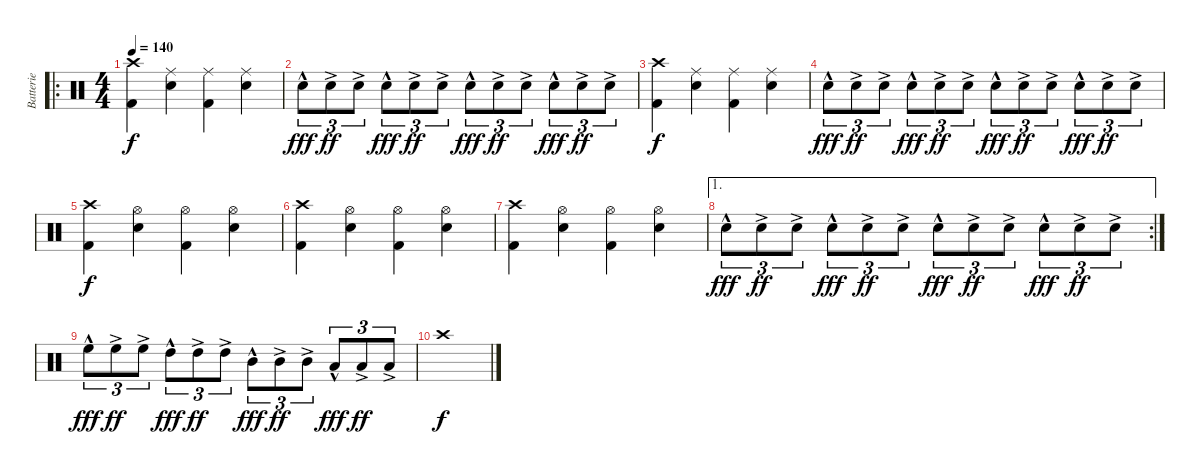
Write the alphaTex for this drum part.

\track ("Batterie" "Batterie") {instrument percussion}
\staff {score}
\articulation defaults
\ro
\ts (4 4)
\tempo 140
\clef neutral
\ks c
("Crash high (hit)" "Kick (hit) 2").4{dy f} ("Ride (middle)" "Electric Snare (hit)").4 ("Ride (middle)" "Kick (hit) 2").4 ("Ride (middle)" "Electric Snare (hit)").4 |
"Electric Snare (hit)"{hac}.8{tu (3 2) dy fff} "Electric Snare (hit)"{ac}.8{tu (3 2) dy ff} "Electric Snare (hit)"{ac}.8{tu (3 2)} "Electric Snare (hit)"{hac}.8{tu (3 2) dy fff} "Electric Snare (hit)"{ac}.8{tu (3 2) dy ff} "Electric Snare (hit)"{ac}.8{tu (3 2)} "Electric Snare (hit)"{hac}.8{tu (3 2) dy fff} "Electric Snare (hit)"{ac}.8{tu (3 2) dy ff} "Electric Snare (hit)"{ac}.8{tu (3 2)} "Electric Snare (hit)"{hac}.8{tu (3 2) dy fff} "Electric Snare (hit)"{ac}.8{tu (3 2) dy ff} "Electric Snare (hit)"{ac}.8{tu (3 2)} |
("Crash high (hit)" "Kick (hit) 2").4{dy f} ("Ride (middle)" "Electric Snare (hit)").4 ("Ride (middle)" "Kick (hit) 2").4 ("Ride (middle)" "Electric Snare (hit)").4 |
"Electric Snare (hit)"{hac}.8{tu (3 2) dy fff} "Electric Snare (hit)"{ac}.8{tu (3 2) dy ff} "Electric Snare (hit)"{ac}.8{tu (3 2)} "Electric Snare (hit)"{hac}.8{tu (3 2) dy fff} "Electric Snare (hit)"{ac}.8{tu (3 2) dy ff} "Electric Snare (hit)"{ac}.8{tu (3 2)} "Electric Snare (hit)"{hac}.8{tu (3 2) dy fff} "Electric Snare (hit)"{ac}.8{tu (3 2) dy ff} "Electric Snare (hit)"{ac}.8{tu (3 2)} "Electric Snare (hit)"{hac}.8{tu (3 2) dy fff} "Electric Snare (hit)"{ac}.8{tu (3 2) dy ff} "Electric Snare (hit)"{ac}.8{tu (3 2)} |
("Crash high (hit)" "Kick (hit) 2").4{dy f} ("Hi-Hat (open)" "Electric Snare (hit)").4 ("Hi-Hat (open)" "Kick (hit) 2").4 ("Hi-Hat (open)" "Electric Snare (hit)").4 |
("Crash high (hit)" "Kick (hit) 2").4 ("Hi-Hat (open)" "Electric Snare (hit)").4 ("Hi-Hat (open)" "Kick (hit) 2").4 ("Hi-Hat (open)" "Electric Snare (hit)").4 |
("Crash high (hit)" "Kick (hit) 2").4 ("Hi-Hat (open)" "Electric Snare (hit)").4 ("Hi-Hat (open)" "Kick (hit) 2").4 ("Hi-Hat (open)" "Electric Snare (hit)").4 |
\ae 1
\rc 2 "Electric Snare (hit)"{hac}.8{tu (3 2) dy fff} "Electric Snare (hit)"{ac}.8{tu (3 2) dy ff} "Electric Snare (hit)"{ac}.8{tu (3 2)} "Electric Snare (hit)"{hac}.8{tu (3 2) dy fff} "Electric Snare (hit)"{ac}.8{tu (3 2) dy ff} "Electric Snare (hit)"{ac}.8{tu (3 2)} "Electric Snare (hit)"{hac}.8{tu (3 2) dy fff} "Electric Snare (hit)"{ac}.8{tu (3 2) dy ff} "Electric Snare (hit)"{ac}.8{tu (3 2)} "Electric Snare (hit)"{hac}.8{tu (3 2) dy fff} "Electric Snare (hit)"{ac}.8{tu (3 2) dy ff} "Electric Snare (hit)"{ac}.8{tu (3 2)}
|
"High Floor Tom (hit)"{hac}.8{tu (3 2) dy fff} "High Floor Tom (hit)"{ac}.8{tu (3 2) dy ff} "High Floor Tom (hit)"{ac}.8{tu (3 2)} "High Tom (hit)"{hac}.8{tu (3 2) dy fff} "High Tom (hit)"{ac}.8{tu (3 2) dy ff} "High Tom (hit)"{ac}.8{tu (3 2)} "Mid Tom (hit)"{hac}.8{tu (3 2) dy fff} "Mid Tom (hit)"{ac}.8{tu (3 2) dy ff} "Mid Tom (hit)"{ac}.8{tu (3 2)} "Low Tom (hit)"{hac}.8{tu (3 2) dy fff} "Low Tom (hit)"{ac}.8{tu (3 2) dy ff} "Low Tom (hit)"{ac}.8{tu (3 2)} |
"Crash high (hit)".1{dy f}
